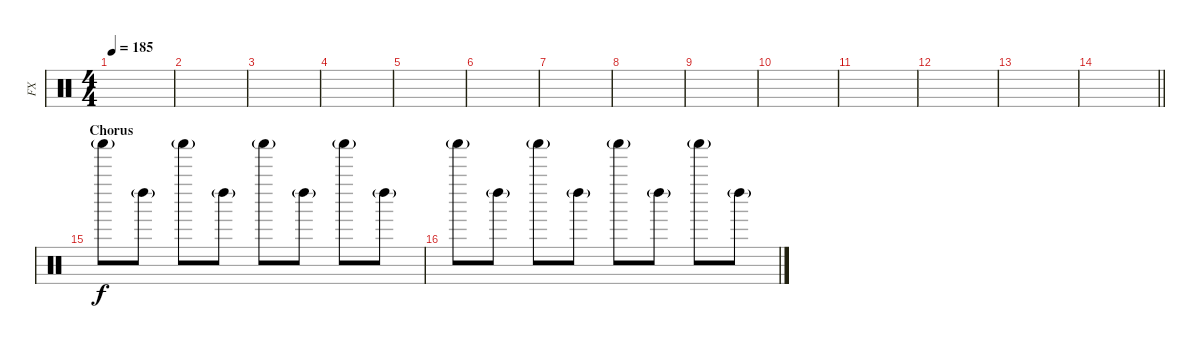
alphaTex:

\track ("FX" "FX") {instrument percussion}
\staff {score}
\articulation defaults
\ts (4 4)
\tempo 185
\clef neutral
\ks c
|
|
|
|
|
|
|
|
|
|
|
|
|
\barLineRight lightlight
|
\section ("" "Chorus")
"Shaker (hit)"{g}.8 "Left Maraca (hit)"{g}.8 "Shaker (hit)"{g}.8 "Left Maraca (hit)"{g}.8 "Shaker (hit)"{g}.8 "Left Maraca (hit)"{g}.8 "Shaker (hit)"{g}.8 "Left Maraca (hit)"{g}.8 |
"Shaker (hit)"{g}.8 "Left Maraca (hit)"{g}.8 "Shaker (hit)"{g}.8 "Left Maraca (hit)"{g}.8 "Shaker (hit)"{g}.8 "Left Maraca (hit)"{g}.8 "Shaker (hit)"{g}.8 "Left Maraca (hit)"{g}.8
